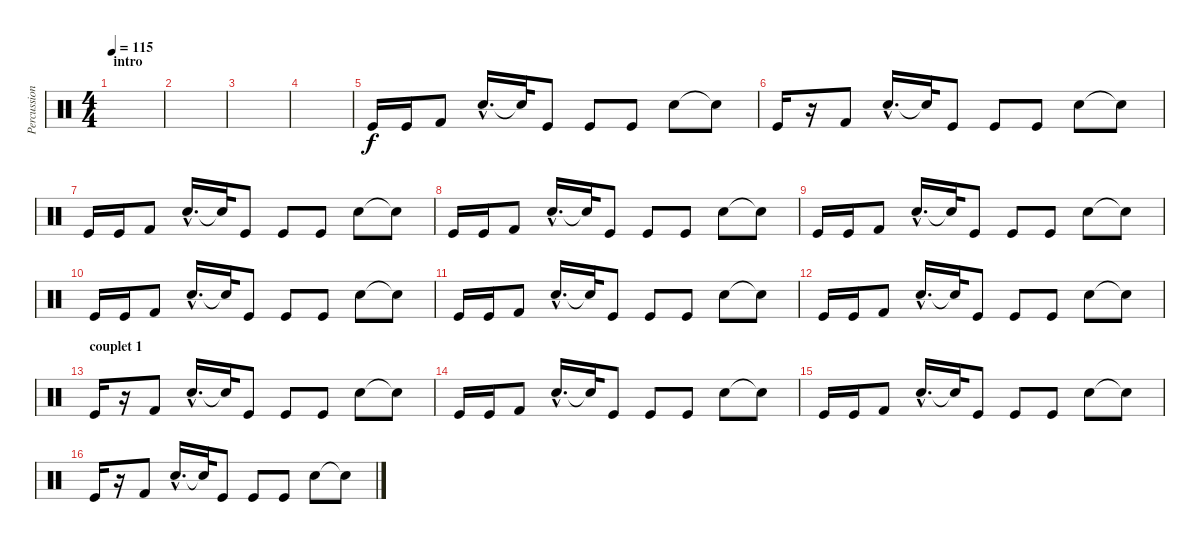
\track ("Percussions" "Percussion") {instrument percussion}
\staff {score}
\articulation defaults
\ts (4 4)
\section ("" "intro")
\tempo 115
\clef neutral
\ks c
|
|
|
|
"Kick (hit)".16 "Kick (hit)".16 "Kick (hit) 2".8 "Electric Snare (hit)"{hac}.16{d} "Snare (hit)"{t}.32 "Kick (hit)".8 "Kick (hit)".8 "Kick (hit)".8 "Electric Snare (hit)".8 "Snare (hit)"{t}.8 |
"Kick (hit)".16 r.16 "Kick (hit) 2".8 "Electric Snare (hit)"{hac}.16{d} "Snare (hit)"{t}.32 "Kick (hit)".8 "Kick (hit)".8 "Kick (hit)".8 "Electric Snare (hit)".8 "Snare (hit)"{t}.8 |
"Kick (hit)".16 "Kick (hit)".16 "Kick (hit) 2".8 "Electric Snare (hit)"{hac}.16{d} "Snare (hit)"{t}.32 "Kick (hit)".8 "Kick (hit)".8 "Kick (hit)".8 "Electric Snare (hit)".8 "Snare (hit)"{t}.8 |
"Kick (hit)".16 "Kick (hit)".16 "Kick (hit) 2".8 "Electric Snare (hit)"{hac}.16{d} "Snare (hit)"{t}.32 "Kick (hit)".8 "Kick (hit)".8 "Kick (hit)".8 "Electric Snare (hit)".8 "Snare (hit)"{t}.8 |
"Kick (hit)".16 "Kick (hit)".16 "Kick (hit) 2".8 "Electric Snare (hit)"{hac}.16{d} "Snare (hit)"{t}.32 "Kick (hit)".8 "Kick (hit)".8 "Kick (hit)".8 "Electric Snare (hit)".8 "Snare (hit)"{t}.8 |
"Kick (hit)".16 "Kick (hit)".16 "Kick (hit) 2".8 "Electric Snare (hit)"{hac}.16{d} "Snare (hit)"{t}.32 "Kick (hit)".8 "Kick (hit)".8 "Kick (hit)".8 "Electric Snare (hit)".8 "Snare (hit)"{t}.8 |
"Kick (hit)".16 "Kick (hit)".16 "Kick (hit) 2".8 "Electric Snare (hit)"{hac}.16{d} "Snare (hit)"{t}.32 "Kick (hit)".8 "Kick (hit)".8 "Kick (hit)".8 "Electric Snare (hit)".8 "Snare (hit)"{t}.8 |
"Kick (hit)".16 "Kick (hit)".16 "Kick (hit) 2".8 "Electric Snare (hit)"{hac}.16{d} "Snare (hit)"{t}.32 "Kick (hit)".8 "Kick (hit)".8 "Kick (hit)".8 "Electric Snare (hit)".8 "Snare (hit)"{t}.8 |
\section ("" "couplet 1")
"Kick (hit)".16 r.16 "Kick (hit) 2".8 "Electric Snare (hit)"{hac}.16{d} "Snare (hit)"{t}.32 "Kick (hit)".8 "Kick (hit)".8 "Kick (hit)".8 "Electric Snare (hit)".8 "Snare (hit)"{t}.8 |
"Kick (hit)".16 "Kick (hit)".16 "Kick (hit) 2".8 "Electric Snare (hit)"{hac}.16{d} "Snare (hit)"{t}.32 "Kick (hit)".8 "Kick (hit)".8 "Kick (hit)".8 "Electric Snare (hit)".8 "Snare (hit)"{t}.8 |
"Kick (hit)".16 "Kick (hit)".16 "Kick (hit) 2".8 "Electric Snare (hit)"{hac}.16{d} "Snare (hit)"{t}.32 "Kick (hit)".8 "Kick (hit)".8 "Kick (hit)".8 "Electric Snare (hit)".8 "Snare (hit)"{t}.8 |
"Kick (hit)".16 r.16 "Kick (hit) 2".8 "Electric Snare (hit)"{hac}.16{d} "Snare (hit)"{t}.32 "Kick (hit)".8 "Kick (hit)".8 "Kick (hit)".8 "Electric Snare (hit)".8 "Snare (hit)"{t}.8
